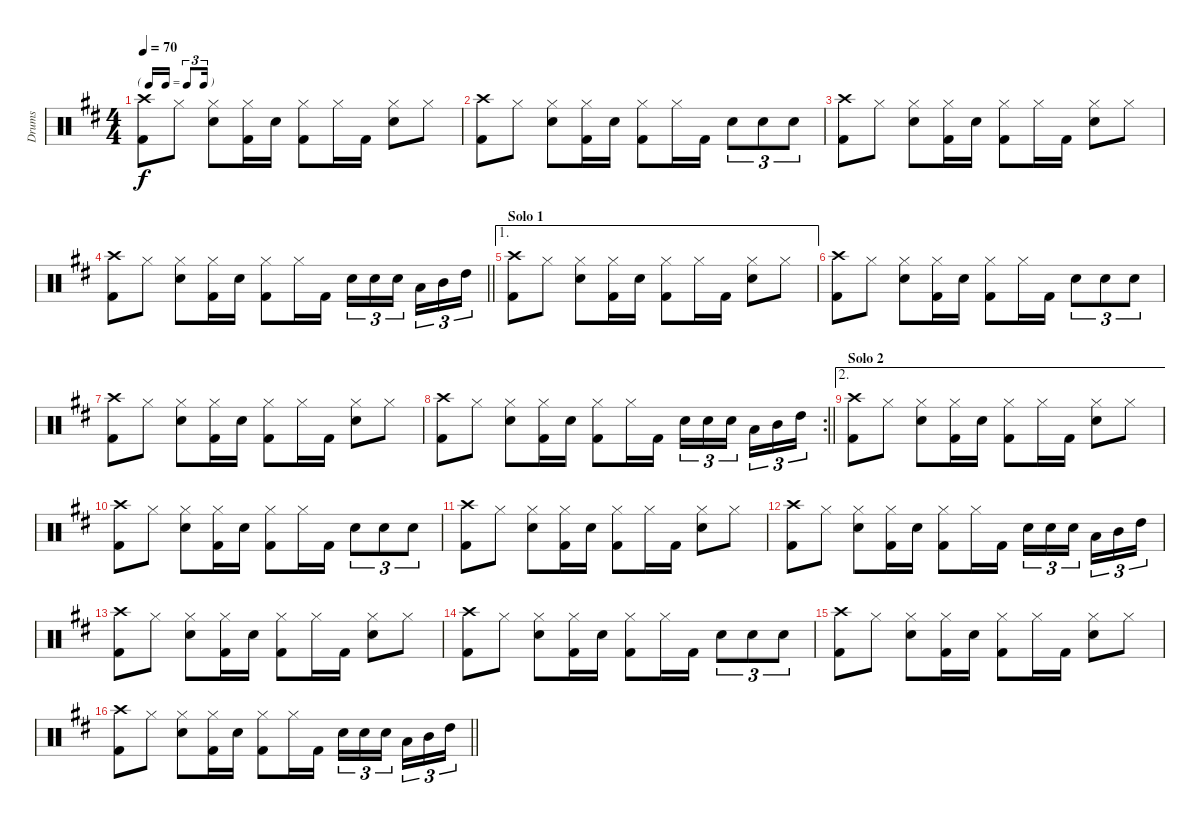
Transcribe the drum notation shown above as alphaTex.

\track ("Drums" "Drums") {instrument percussion}
\staff {score}
\articulation defaults
\ts (4 4)
\tf triplet16th
\tempo 70
\clef neutral
\ks bminor
("Crash high (hit)" "Kick (hit) 2").8{dy f} "Hi-Hat (closed)".8 ("Hi-Hat (closed)" "Snare (hit) 2").8 ("Hi-Hat (closed)" "Kick (hit) 2").16 "Snare (hit) 2".16 ("Hi-Hat (closed)" "Kick (hit) 2").8 "Hi-Hat (closed)".16 "Kick (hit) 2".16 ("Hi-Hat (closed)" "Snare (hit) 2").8 "Hi-Hat (closed)".8 |
("Crash high (hit)" "Kick (hit) 2").8 "Hi-Hat (closed)".8 ("Hi-Hat (closed)" "Snare (hit) 2").8 ("Hi-Hat (closed)" "Kick (hit) 2").16 "Snare (hit) 2".16 ("Hi-Hat (closed)" "Kick (hit) 2").8 "Hi-Hat (closed)".16 "Kick (hit) 2".16 "Snare (hit) 2".8{tu (3 2)} "Snare (hit) 2".8{tu (3 2)} "Snare (hit) 2".8{tu (3 2)} |
("Crash high (hit)" "Kick (hit) 2").8 "Hi-Hat (closed)".8 ("Hi-Hat (closed)" "Snare (hit) 2").8 ("Hi-Hat (closed)" "Kick (hit) 2").16 "Snare (hit) 2".16 ("Hi-Hat (closed)" "Kick (hit) 2").8 "Hi-Hat (closed)".16 "Kick (hit) 2".16 ("Hi-Hat (closed)" "Snare (hit) 2").8 "Hi-Hat (closed)".8 |
\barLineRight lightlight
("Crash high (hit)" "Kick (hit) 2").8 "Hi-Hat (closed)".8 ("Hi-Hat (closed)" "Snare (hit) 2").8 ("Hi-Hat (closed)" "Kick (hit) 2").16 "Snare (hit) 2".16 ("Hi-Hat (closed)" "Kick (hit) 2").8 "Hi-Hat (closed)".16 "Kick (hit) 2".16 "Snare (hit) 2".16{tu (3 2)} "Snare (hit) 2".16{tu (3 2)} "Snare (hit) 2".16{tu (3 2) beam splitsecondary} "Low Tom (hit)".16{tu (3 2)} "Mid Tom (hit)".16{tu (3 2)} "High Tom (hit)".16{tu (3 2)} |
\ae 1
\section ("" "Solo 1")
("Crash high (hit)" "Kick (hit) 2").8 "Hi-Hat (closed)".8 ("Hi-Hat (closed)" "Snare (hit) 2").8 ("Hi-Hat (closed)" "Kick (hit) 2").16 "Snare (hit) 2".16 ("Hi-Hat (closed)" "Kick (hit) 2").8 "Hi-Hat (closed)".16 "Kick (hit) 2".16 ("Hi-Hat (closed)" "Snare (hit) 2").8 "Hi-Hat (closed)".8 |
("Crash high (hit)" "Kick (hit) 2").8 "Hi-Hat (closed)".8 ("Hi-Hat (closed)" "Snare (hit) 2").8 ("Hi-Hat (closed)" "Kick (hit) 2").16 "Snare (hit) 2".16 ("Hi-Hat (closed)" "Kick (hit) 2").8 "Hi-Hat (closed)".16 "Kick (hit) 2".16 "Snare (hit) 2".8{tu (3 2)} "Snare (hit) 2".8{tu (3 2)} "Snare (hit) 2".8{tu (3 2)} |
("Crash high (hit)" "Kick (hit) 2").8 "Hi-Hat (closed)".8 ("Hi-Hat (closed)" "Snare (hit) 2").8 ("Hi-Hat (closed)" "Kick (hit) 2").16 "Snare (hit) 2".16 ("Hi-Hat (closed)" "Kick (hit) 2").8 "Hi-Hat (closed)".16 "Kick (hit) 2".16 ("Hi-Hat (closed)" "Snare (hit) 2").8 "Hi-Hat (closed)".8 |
\rc 2
\barLineRight lightlight
("Crash high (hit)" "Kick (hit) 2").8 "Hi-Hat (closed)".8 ("Hi-Hat (closed)" "Snare (hit) 2").8 ("Hi-Hat (closed)" "Kick (hit) 2").16 "Snare (hit) 2".16 ("Hi-Hat (closed)" "Kick (hit) 2").8 "Hi-Hat (closed)".16 "Kick (hit) 2".16 "Snare (hit) 2".16{tu (3 2)} "Snare (hit) 2".16{tu (3 2)} "Snare (hit) 2".16{tu (3 2) beam splitsecondary} "Low Tom (hit)".16{tu (3 2)} "Mid Tom (hit)".16{tu (3 2)} "High Tom (hit)".16{tu (3 2)} |
\ae 2
\section ("" "Solo 2")
("Crash high (hit)" "Kick (hit) 2").8 "Hi-Hat (closed)".8 ("Hi-Hat (closed)" "Snare (hit) 2").8 ("Hi-Hat (closed)" "Kick (hit) 2").16 "Snare (hit) 2".16 ("Hi-Hat (closed)" "Kick (hit) 2").8 "Hi-Hat (closed)".16 "Kick (hit) 2".16 ("Hi-Hat (closed)" "Snare (hit) 2").8 "Hi-Hat (closed)".8 |
("Crash high (hit)" "Kick (hit) 2").8 "Hi-Hat (closed)".8 ("Hi-Hat (closed)" "Snare (hit) 2").8 ("Hi-Hat (closed)" "Kick (hit) 2").16 "Snare (hit) 2".16 ("Hi-Hat (closed)" "Kick (hit) 2").8 "Hi-Hat (closed)".16 "Kick (hit) 2".16 "Snare (hit) 2".8{tu (3 2)} "Snare (hit) 2".8{tu (3 2)} "Snare (hit) 2".8{tu (3 2)} |
("Crash high (hit)" "Kick (hit) 2").8 "Hi-Hat (closed)".8 ("Hi-Hat (closed)" "Snare (hit) 2").8 ("Hi-Hat (closed)" "Kick (hit) 2").16 "Snare (hit) 2".16 ("Hi-Hat (closed)" "Kick (hit) 2").8 "Hi-Hat (closed)".16 "Kick (hit) 2".16 ("Hi-Hat (closed)" "Snare (hit) 2").8 "Hi-Hat (closed)".8 |
("Crash high (hit)" "Kick (hit) 2").8 "Hi-Hat (closed)".8 ("Hi-Hat (closed)" "Snare (hit) 2").8 ("Hi-Hat (closed)" "Kick (hit) 2").16 "Snare (hit) 2".16 ("Hi-Hat (closed)" "Kick (hit) 2").8 "Hi-Hat (closed)".16 "Kick (hit) 2".16 "Snare (hit) 2".16{tu (3 2)} "Snare (hit) 2".16{tu (3 2)} "Snare (hit) 2".16{tu (3 2) beam splitsecondary} "Low Tom (hit)".16{tu (3 2)} "Mid Tom (hit)".16{tu (3 2)} "High Tom (hit)".16{tu (3 2)} |
("Crash high (hit)" "Kick (hit) 2").8 "Hi-Hat (closed)".8 ("Hi-Hat (closed)" "Snare (hit) 2").8 ("Hi-Hat (closed)" "Kick (hit) 2").16 "Snare (hit) 2".16 ("Hi-Hat (closed)" "Kick (hit) 2").8 "Hi-Hat (closed)".16 "Kick (hit) 2".16 ("Hi-Hat (closed)" "Snare (hit) 2").8 "Hi-Hat (closed)".8 |
("Crash high (hit)" "Kick (hit) 2").8 "Hi-Hat (closed)".8 ("Hi-Hat (closed)" "Snare (hit) 2").8 ("Hi-Hat (closed)" "Kick (hit) 2").16 "Snare (hit) 2".16 ("Hi-Hat (closed)" "Kick (hit) 2").8 "Hi-Hat (closed)".16 "Kick (hit) 2".16 "Snare (hit) 2".8{tu (3 2)} "Snare (hit) 2".8{tu (3 2)} "Snare (hit) 2".8{tu (3 2)} |
("Crash high (hit)" "Kick (hit) 2").8 "Hi-Hat (closed)".8 ("Hi-Hat (closed)" "Snare (hit) 2").8 ("Hi-Hat (closed)" "Kick (hit) 2").16 "Snare (hit) 2".16 ("Hi-Hat (closed)" "Kick (hit) 2").8 "Hi-Hat (closed)".16 "Kick (hit) 2".16 ("Hi-Hat (closed)" "Snare (hit) 2").8 "Hi-Hat (closed)".8 |
\barLineRight lightlight
("Crash high (hit)" "Kick (hit) 2").8 "Hi-Hat (closed)".8 ("Hi-Hat (closed)" "Snare (hit) 2").8 ("Hi-Hat (closed)" "Kick (hit) 2").16 "Snare (hit) 2".16 ("Hi-Hat (closed)" "Kick (hit) 2").8 "Hi-Hat (closed)".16 "Kick (hit) 2".16 "Snare (hit) 2".16{tu (3 2)} "Snare (hit) 2".16{tu (3 2)} "Snare (hit) 2".16{tu (3 2) beam splitsecondary} "Low Tom (hit)".16{tu (3 2)} "Mid Tom (hit)".16{tu (3 2)} "High Tom (hit)".16{tu (3 2)}
